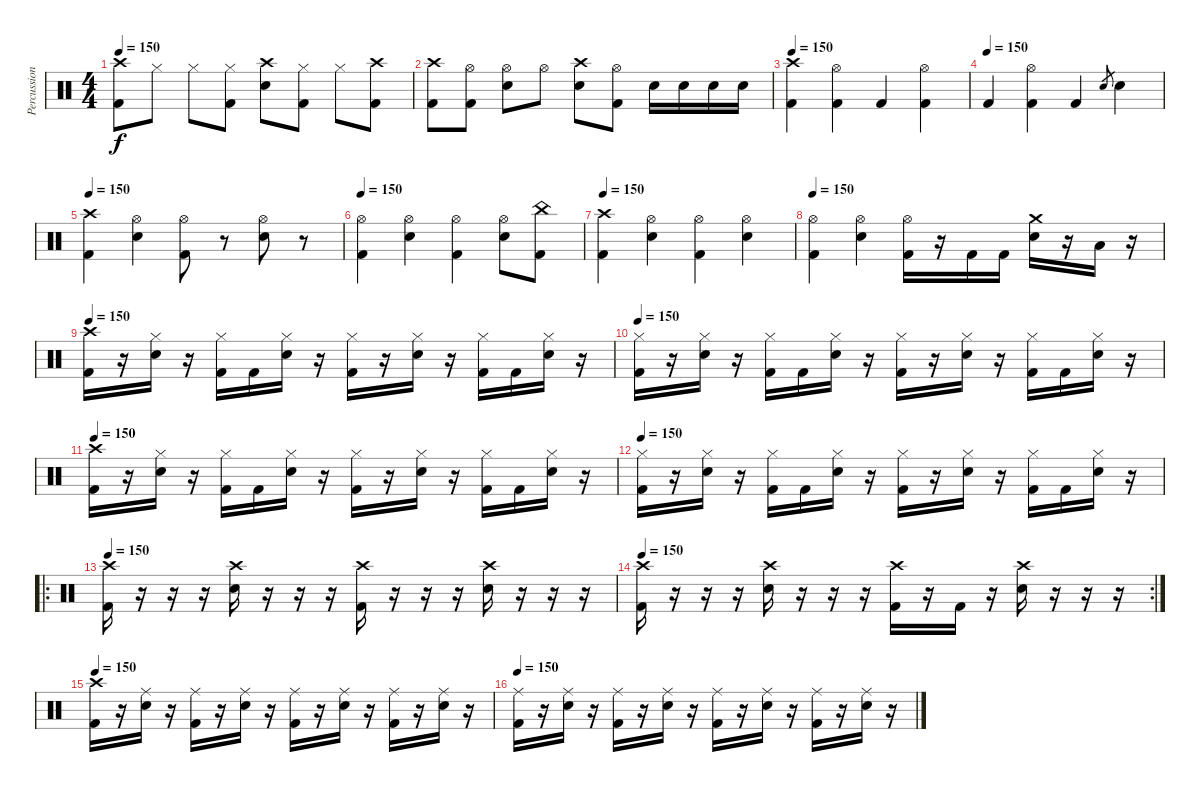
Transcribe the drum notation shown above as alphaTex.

\track ("Percussion" "Percussion") {instrument percussion}
\staff {score}
\articulation defaults
\ts (4 4)
\tempo 150
\clef neutral
\ks c
("Crash high (hit)" "Kick (hit) 2").8{dy f} "Hi-Hat (closed)".8 "Hi-Hat (closed)".8 ("Hi-Hat (closed)" "Kick (hit) 2").8 ("Crash high (hit)" "Snare (hit) 2").8 ("Hi-Hat (closed)" "Kick (hit) 2").8 "Hi-Hat (closed)".8 ("Crash high (hit)" "Kick (hit) 2").8 |
("Crash high (hit)" "Kick (hit) 2").8 ("Hi-Hat (open)" "Kick (hit) 2").8 ("Hi-Hat (open)" "Snare (hit) 2").8 "Hi-Hat (open)".8 ("Crash high (hit)" "Snare (hit) 2").8 ("Hi-Hat (open)" "Kick (hit) 2").8 "Snare (hit) 2".16 "Snare (hit) 2".16 "Snare (hit) 2".16 "Snare (hit) 2".16 |
\tempo 150
("Crash high (hit)" "Kick (hit) 2").4 ("Hi-Hat (open)" "Kick (hit) 2").4 "Kick (hit) 2".4 ("Hi-Hat (open)" "Kick (hit) 2").4 |
\tempo (150)
"Kick (hit) 2".4 ("Hi-Hat (open)" "Kick (hit) 2").4 "Kick (hit) 2".4 "Snare (hit) 2".8{gr} "Snare (hit) 2".4 |
\tempo 150
("Crash high (hit)" "Kick (hit) 2").4 ("Hi-Hat (open)" "Snare (hit) 2").4 ("Hi-Hat (open)" "Kick (hit) 2").8 r.8 ("Hi-Hat (open)" "Snare (hit) 2").8 r.8 |
\tempo 150
("Hi-Hat (open)" "Kick (hit) 2").4 ("Hi-Hat (open)" "Snare (hit) 2").4 ("Hi-Hat (open)" "Kick (hit) 2").4 ("Hi-Hat (open)" "Snare (hit) 2").8 ("China (hit)" "Kick (hit) 2").8 |
\tempo 150
("Crash high (hit)" "Kick (hit) 2").4 ("Hi-Hat (open)" "Snare (hit) 2").4 ("Hi-Hat (open)" "Kick (hit) 2").4 ("Hi-Hat (open)" "Snare (hit) 2").4 |
\tempo 150
("Hi-Hat (open)" "Kick (hit) 2").4 ("Hi-Hat (open)" "Snare (hit) 2").4 ("Hi-Hat (open)" "Kick (hit) 2").16 r.16 "Kick (hit) 2".16 "Kick (hit) 2".16 ("Crash medium (hit)" "Snare (hit) 2").16 r.16 "Low Tom (hit)".16 r.16 |
\tempo 150
("Kick (hit) 2" "Crash high (hit)").16 r.16 ("Hi-Hat (closed)" "Snare (hit) 2").16 r.16 ("Kick (hit) 2" "Hi-Hat (closed)").16 "Kick (hit) 2".16 ("Snare (hit) 2" "Hi-Hat (closed)").16 r.16 ("Kick (hit) 2" "Hi-Hat (closed)").16 r.16 ("Hi-Hat (closed)" "Snare (hit) 2").16 r.16 ("Kick (hit) 2" "Hi-Hat (closed)").16 "Kick (hit) 2".16 ("Snare (hit) 2" "Hi-Hat (closed)").16 r.16 |
\tempo 150
("Kick (hit) 2" "Hi-Hat (closed)").16 r.16 ("Hi-Hat (closed)" "Snare (hit) 2").16 r.16 ("Kick (hit) 2" "Hi-Hat (closed)").16 "Kick (hit) 2".16 ("Snare (hit) 2" "Hi-Hat (closed)").16 r.16 ("Kick (hit) 2" "Hi-Hat (closed)").16 r.16 ("Hi-Hat (closed)" "Snare (hit) 2").16 r.16 ("Kick (hit) 2" "Hi-Hat (closed)").16 "Kick (hit) 2".16 ("Snare (hit) 2" "Hi-Hat (closed)").16 r.16 |
\tempo 150
("Kick (hit) 2" "Crash high (hit)").16 r.16 ("Hi-Hat (closed)" "Snare (hit) 2").16 r.16 ("Kick (hit) 2" "Hi-Hat (closed)").16 "Kick (hit) 2".16 ("Snare (hit) 2" "Hi-Hat (closed)").16 r.16 ("Kick (hit) 2" "Hi-Hat (closed)").16 r.16 ("Hi-Hat (closed)" "Snare (hit) 2").16 r.16 ("Kick (hit) 2" "Hi-Hat (closed)").16 "Kick (hit) 2".16 ("Snare (hit) 2" "Hi-Hat (closed)").16 r.16 |
\tempo 150
("Kick (hit) 2" "Hi-Hat (closed)").16 r.16 ("Hi-Hat (closed)" "Snare (hit) 2").16 r.16 ("Kick (hit) 2" "Hi-Hat (closed)").16 "Kick (hit) 2".16 ("Snare (hit) 2" "Hi-Hat (closed)").16 r.16 ("Kick (hit) 2" "Hi-Hat (closed)").16 r.16 ("Hi-Hat (closed)" "Snare (hit) 2").16 r.16 ("Kick (hit) 2" "Hi-Hat (closed)").16 "Kick (hit) 2".16 ("Snare (hit) 2" "Hi-Hat (closed)").16 r.16 |
\ro
\tempo 150
("Kick (hit) 2" "Crash high (hit)").16 r.16 r.16 r.16 ("Crash high (hit)" "Snare (hit) 2").16 r.16 r.16 r.16 ("Kick (hit) 2" "Crash high (hit)").16 r.16 r.16 r.16 ("Snare (hit) 2" "Crash high (hit)").16 r.16 r.16 r.16 |
\rc 2
\tempo 150
("Kick (hit) 2" "Crash high (hit)").16 r.16 r.16 r.16 ("Crash high (hit)" "Snare (hit) 2").16 r.16 r.16 r.16 ("Kick (hit) 2" "Crash high (hit)").16 r.16 "Kick (hit) 2".16 r.16 ("Snare (hit) 2" "Crash high (hit)").16 r.16 r.16 r.16 |
\tempo 150
("Kick (hit) 2" "Crash high (hit)").16 r.16 ("Ride (middle)" "Snare (hit) 2").16 r.16 ("Kick (hit) 2" "Ride (middle)").16 r.16 ("Snare (hit) 2" "Ride (middle)").16 r.16 ("Kick (hit) 2" "Ride (middle)").16 r.16 ("Snare (hit) 2" "Ride (middle)").16 r.16 ("Kick (hit) 2" "Ride (middle)").16 r.16 ("Snare (hit) 2" "Ride (middle)").16 r.16 |
\tempo 150
("Kick (hit) 2" "Ride (middle)").16 r.16 ("Ride (middle)" "Snare (hit) 2").16 r.16 ("Kick (hit) 2" "Ride (middle)").16 r.16 ("Snare (hit) 2" "Ride (middle)").16 r.16 ("Kick (hit) 2" "Ride (middle)").16 r.16 ("Snare (hit) 2" "Ride (middle)").16 r.16 ("Kick (hit) 2" "Ride (middle)").16 r.16 ("Snare (hit) 2" "Ride (middle)").16 r.16
